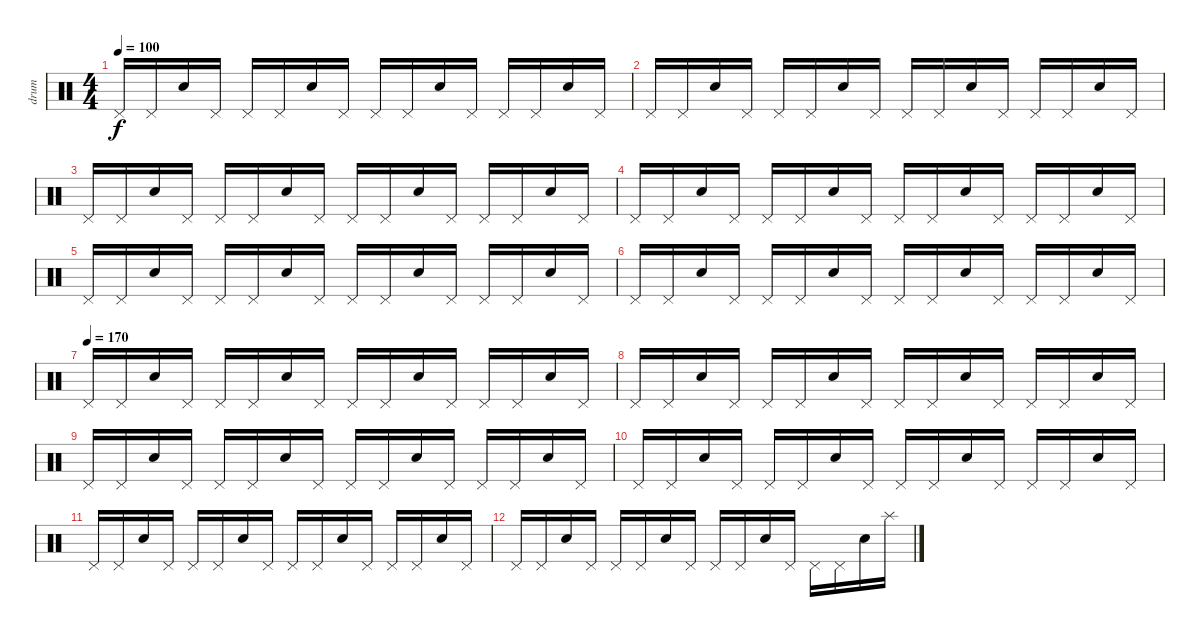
\track ("drum" "drum") {instrument percussion}
\staff {score}
\articulation defaults
\ts (4 4)
\tempo 100
\clef neutral
\ks c "Pedal Hi-Hat (hit)".16{dy f} "Pedal Hi-Hat (hit)".16 "Electric Snare (hit)".16 "Pedal Hi-Hat (hit)".16 "Pedal Hi-Hat (hit)".16 "Pedal Hi-Hat (hit)".16 "Electric Snare (hit)".16 "Pedal Hi-Hat (hit)".16 "Pedal Hi-Hat (hit)".16 "Pedal Hi-Hat (hit)".16 "Electric Snare (hit)".16 "Pedal Hi-Hat (hit)".16 "Pedal Hi-Hat (hit)".16 "Pedal Hi-Hat (hit)".16 "Electric Snare (hit)".16 "Pedal Hi-Hat (hit)".16
|
"Pedal Hi-Hat (hit)".16 "Pedal Hi-Hat (hit)".16 "Electric Snare (hit)".16 "Pedal Hi-Hat (hit)".16 "Pedal Hi-Hat (hit)".16 "Pedal Hi-Hat (hit)".16 "Electric Snare (hit)".16 "Pedal Hi-Hat (hit)".16 "Pedal Hi-Hat (hit)".16 "Pedal Hi-Hat (hit)".16 "Electric Snare (hit)".16 "Pedal Hi-Hat (hit)".16 "Pedal Hi-Hat (hit)".16 "Pedal Hi-Hat (hit)".16 "Electric Snare (hit)".16 "Pedal Hi-Hat (hit)".16 |
"Pedal Hi-Hat (hit)".16 "Pedal Hi-Hat (hit)".16 "Electric Snare (hit)".16 "Pedal Hi-Hat (hit)".16 "Pedal Hi-Hat (hit)".16 "Pedal Hi-Hat (hit)".16 "Electric Snare (hit)".16 "Pedal Hi-Hat (hit)".16 "Pedal Hi-Hat (hit)".16 "Pedal Hi-Hat (hit)".16 "Electric Snare (hit)".16 "Pedal Hi-Hat (hit)".16 "Pedal Hi-Hat (hit)".16 "Pedal Hi-Hat (hit)".16 "Electric Snare (hit)".16 "Pedal Hi-Hat (hit)".16 |
"Pedal Hi-Hat (hit)".16 "Pedal Hi-Hat (hit)".16 "Electric Snare (hit)".16 "Pedal Hi-Hat (hit)".16 "Pedal Hi-Hat (hit)".16 "Pedal Hi-Hat (hit)".16 "Electric Snare (hit)".16 "Pedal Hi-Hat (hit)".16 "Pedal Hi-Hat (hit)".16 "Pedal Hi-Hat (hit)".16 "Electric Snare (hit)".16 "Pedal Hi-Hat (hit)".16 "Pedal Hi-Hat (hit)".16 "Pedal Hi-Hat (hit)".16 "Electric Snare (hit)".16 "Pedal Hi-Hat (hit)".16 |
"Pedal Hi-Hat (hit)".16 "Pedal Hi-Hat (hit)".16 "Electric Snare (hit)".16 "Pedal Hi-Hat (hit)".16 "Pedal Hi-Hat (hit)".16 "Pedal Hi-Hat (hit)".16 "Electric Snare (hit)".16 "Pedal Hi-Hat (hit)".16 "Pedal Hi-Hat (hit)".16 "Pedal Hi-Hat (hit)".16 "Electric Snare (hit)".16 "Pedal Hi-Hat (hit)".16 "Pedal Hi-Hat (hit)".16 "Pedal Hi-Hat (hit)".16 "Electric Snare (hit)".16 "Pedal Hi-Hat (hit)".16 |
"Pedal Hi-Hat (hit)".16 "Pedal Hi-Hat (hit)".16 "Electric Snare (hit)".16 "Pedal Hi-Hat (hit)".16 "Pedal Hi-Hat (hit)".16 "Pedal Hi-Hat (hit)".16 "Electric Snare (hit)".16 "Pedal Hi-Hat (hit)".16 "Pedal Hi-Hat (hit)".16 "Pedal Hi-Hat (hit)".16 "Electric Snare (hit)".16 "Pedal Hi-Hat (hit)".16 "Pedal Hi-Hat (hit)".16 "Pedal Hi-Hat (hit)".16 "Electric Snare (hit)".16 "Pedal Hi-Hat (hit)".16 |
\tempo (170)
"Pedal Hi-Hat (hit)".16 "Pedal Hi-Hat (hit)".16 "Electric Snare (hit)".16 "Pedal Hi-Hat (hit)".16 "Pedal Hi-Hat (hit)".16 "Pedal Hi-Hat (hit)".16 "Electric Snare (hit)".16 "Pedal Hi-Hat (hit)".16 "Pedal Hi-Hat (hit)".16 "Pedal Hi-Hat (hit)".16 "Electric Snare (hit)".16 "Pedal Hi-Hat (hit)".16 "Pedal Hi-Hat (hit)".16 "Pedal Hi-Hat (hit)".16 "Electric Snare (hit)".16 "Pedal Hi-Hat (hit)".16 |
"Pedal Hi-Hat (hit)".16 "Pedal Hi-Hat (hit)".16 "Electric Snare (hit)".16 "Pedal Hi-Hat (hit)".16 "Pedal Hi-Hat (hit)".16 "Pedal Hi-Hat (hit)".16 "Electric Snare (hit)".16 "Pedal Hi-Hat (hit)".16 "Pedal Hi-Hat (hit)".16 "Pedal Hi-Hat (hit)".16 "Electric Snare (hit)".16 "Pedal Hi-Hat (hit)".16 "Pedal Hi-Hat (hit)".16 "Pedal Hi-Hat (hit)".16 "Electric Snare (hit)".16 "Pedal Hi-Hat (hit)".16 |
"Pedal Hi-Hat (hit)".16 "Pedal Hi-Hat (hit)".16 "Electric Snare (hit)".16 "Pedal Hi-Hat (hit)".16 "Pedal Hi-Hat (hit)".16 "Pedal Hi-Hat (hit)".16 "Electric Snare (hit)".16 "Pedal Hi-Hat (hit)".16 "Pedal Hi-Hat (hit)".16 "Pedal Hi-Hat (hit)".16 "Electric Snare (hit)".16 "Pedal Hi-Hat (hit)".16 "Pedal Hi-Hat (hit)".16 "Pedal Hi-Hat (hit)".16 "Electric Snare (hit)".16 "Pedal Hi-Hat (hit)".16 |
"Pedal Hi-Hat (hit)".16 "Pedal Hi-Hat (hit)".16 "Electric Snare (hit)".16 "Pedal Hi-Hat (hit)".16 "Pedal Hi-Hat (hit)".16 "Pedal Hi-Hat (hit)".16 "Electric Snare (hit)".16 "Pedal Hi-Hat (hit)".16 "Pedal Hi-Hat (hit)".16 "Pedal Hi-Hat (hit)".16 "Electric Snare (hit)".16 "Pedal Hi-Hat (hit)".16 "Pedal Hi-Hat (hit)".16 "Pedal Hi-Hat (hit)".16 "Electric Snare (hit)".16 "Pedal Hi-Hat (hit)".16 |
"Pedal Hi-Hat (hit)".16 "Pedal Hi-Hat (hit)".16 "Electric Snare (hit)".16 "Pedal Hi-Hat (hit)".16 "Pedal Hi-Hat (hit)".16 "Pedal Hi-Hat (hit)".16 "Electric Snare (hit)".16 "Pedal Hi-Hat (hit)".16 "Pedal Hi-Hat (hit)".16 "Pedal Hi-Hat (hit)".16 "Electric Snare (hit)".16 "Pedal Hi-Hat (hit)".16 "Pedal Hi-Hat (hit)".16 "Pedal Hi-Hat (hit)".16 "Electric Snare (hit)".16 "Pedal Hi-Hat (hit)".16 |
"Pedal Hi-Hat (hit)".16 "Pedal Hi-Hat (hit)".16 "Electric Snare (hit)".16 "Pedal Hi-Hat (hit)".16 "Pedal Hi-Hat (hit)".16 "Pedal Hi-Hat (hit)".16 "Electric Snare (hit)".16 "Pedal Hi-Hat (hit)".16 "Pedal Hi-Hat (hit)".16 "Pedal Hi-Hat (hit)".16 "Electric Snare (hit)".16 "Pedal Hi-Hat (hit)".16 "Pedal Hi-Hat (hit)".16 "Pedal Hi-Hat (hit)".16 "Electric Snare (hit)".16 "Splash (hit)".16
